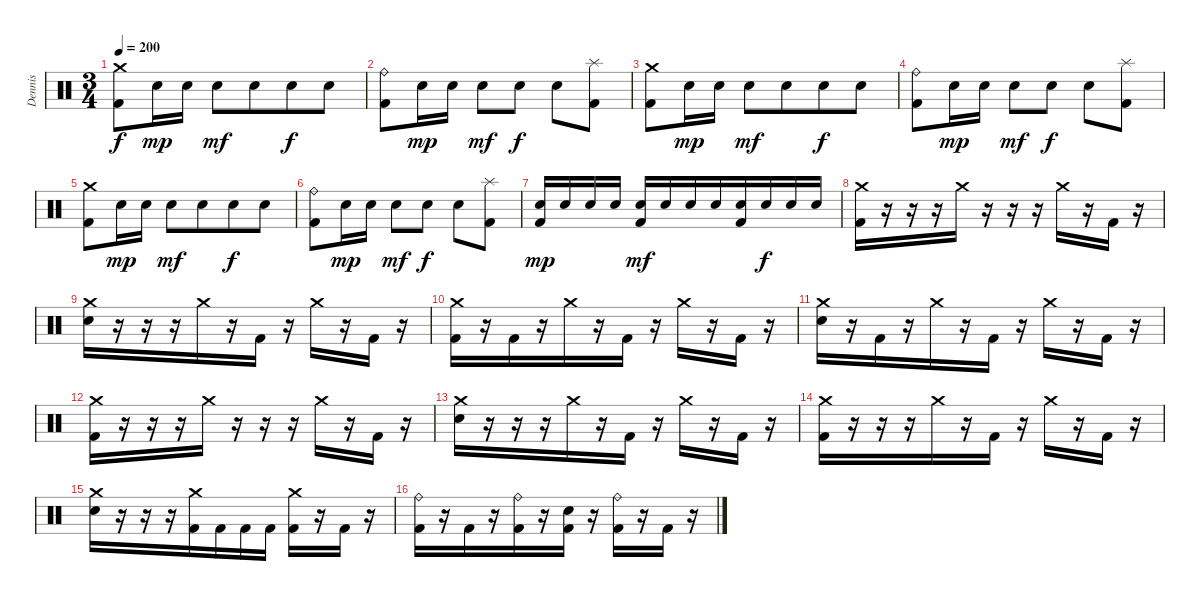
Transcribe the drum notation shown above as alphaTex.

\track ("Dennis" "Dennis") {instrument percussion}
\staff {score}
\articulation defaults
\ts (3 4)
\tempo 200
\clef neutral
\ks c
("Crash medium (hit)" "Kick (hit) 2").8{dy f beam merge} "Electric Snare (hit)".16{dy mp} "Electric Snare (hit)".16 "Electric Snare (hit)".8{dy mf beam merge} "Electric Snare (hit)".8{beam merge} "Electric Snare (hit)".8{dy f} "Electric Snare (hit)".8 |
("Ride (bell)" "Kick (hit) 2").8 "Electric Snare (hit)".16{dy mp} "Electric Snare (hit)".16 "Electric Snare (hit)".8{dy mf} "Electric Snare (hit)".8{dy f} "Electric Snare (hit)".8 ("Splash (hit)" "Kick (hit) 2").8 |
("Crash medium (hit)" "Kick (hit) 2").8{beam merge} "Electric Snare (hit)".16{dy mp} "Electric Snare (hit)".16 "Electric Snare (hit)".8{dy mf beam merge} "Electric Snare (hit)".8{beam merge} "Electric Snare (hit)".8{dy f} "Electric Snare (hit)".8 |
("Ride (bell)" "Kick (hit) 2").8 "Electric Snare (hit)".16{dy mp} "Electric Snare (hit)".16 "Electric Snare (hit)".8{dy mf} "Electric Snare (hit)".8{dy f} "Electric Snare (hit)".8 ("Splash (hit)" "Kick (hit) 2").8 |
("Crash medium (hit)" "Kick (hit) 2").8{beam merge} "Electric Snare (hit)".16{dy mp} "Electric Snare (hit)".16 "Electric Snare (hit)".8{dy mf beam merge} "Electric Snare (hit)".8{beam merge} "Electric Snare (hit)".8{dy f} "Electric Snare (hit)".8 |
("Ride (bell)" "Kick (hit) 2").8 "Electric Snare (hit)".16{dy mp} "Electric Snare (hit)".16 "Electric Snare (hit)".8{dy mf} "Electric Snare (hit)".8{dy f} "Electric Snare (hit)".8 ("Splash (hit)" "Kick (hit) 2").8 |
("Electric Snare (hit)" "Kick (hit) 2").16{dy mp beam merge} "Electric Snare (hit)".16 "Electric Snare (hit)".16 "Electric Snare (hit)".16 ("Electric Snare (hit)" "Kick (hit) 2").16{dy mf} "Electric Snare (hit)".16{beam merge} "Electric Snare (hit)".16 "Electric Snare (hit)".16{beam merge} ("Electric Snare (hit)" "Kick (hit) 2").16 "Electric Snare (hit)".16{dy f} "Electric Snare (hit)".16 "Electric Snare (hit)".16 |
("Crash medium (hit)" "Kick (hit) 2").16{beam merge} r.16 r.16{beam merge} r.16 "Crash medium (hit)".16 r.16 r.16 r.16 "Crash medium (hit)".16{beam merge} r.16 "Kick (hit) 2".16 r.16 |
("Crash medium (hit)" "Electric Snare (hit)").16{beam merge} r.16 r.16{beam merge} r.16 "Crash medium (hit)".16 r.16 "Kick (hit) 2".16 r.16 "Crash medium (hit)".16{beam merge} r.16 "Kick (hit) 2".16 r.16 |
("Crash medium (hit)" "Kick (hit) 2").16{beam merge} r.16 "Kick (hit) 2".16{beam merge} r.16 "Crash medium (hit)".16 r.16 "Kick (hit) 2".16 r.16 "Crash medium (hit)".16{beam merge} r.16 "Kick (hit) 2".16 r.16 |
("Crash medium (hit)" "Electric Snare (hit)").16{beam merge} r.16 "Kick (hit) 2".16{beam merge} r.16 "Crash medium (hit)".16 r.16 "Kick (hit) 2".16 r.16 "Crash medium (hit)".16{beam merge} r.16 "Kick (hit) 2".16 r.16 |
("Crash medium (hit)" "Kick (hit) 2").16{beam merge} r.16 r.16{beam merge} r.16 "Crash medium (hit)".16 r.16 r.16 r.16 "Crash medium (hit)".16{beam merge} r.16 "Kick (hit) 2".16 r.16 |
("Crash medium (hit)" "Electric Snare (hit)").16{beam merge} r.16 r.16{beam merge} r.16 "Crash medium (hit)".16 r.16 "Kick (hit) 2".16 r.16 "Crash medium (hit)".16{beam merge} r.16 "Kick (hit) 2".16 r.16 |
("Crash medium (hit)" "Kick (hit) 2").16{beam merge} r.16 r.16{beam merge} r.16 "Crash medium (hit)".16 r.16 "Kick (hit) 2".16 r.16 "Crash medium (hit)".16{beam merge} r.16 "Kick (hit) 2".16 r.16 |
("Crash medium (hit)" "Electric Snare (hit)").16{beam merge} r.16 r.16{beam merge} r.16 ("Crash medium (hit)" "Kick (hit) 2").16 "Kick (hit) 2".16 "Kick (hit) 2".16 "Kick (hit) 2".16 ("Crash medium (hit)" "Kick (hit) 2").16{beam merge} r.16{beam merge} "Kick (hit) 2".16{beam merge} r.16 |
("Ride (bell)" "Kick (hit) 2").16{beam merge} r.16 "Kick (hit) 2".16{beam merge} r.16 ("Ride (bell)" "Kick (hit) 2").16 r.16 ("Electric Snare (hit)" "Kick (hit) 2").16 r.16 ("Ride (bell)" "Kick (hit) 2").16{beam merge} r.16 "Kick (hit) 2".16 r.16
